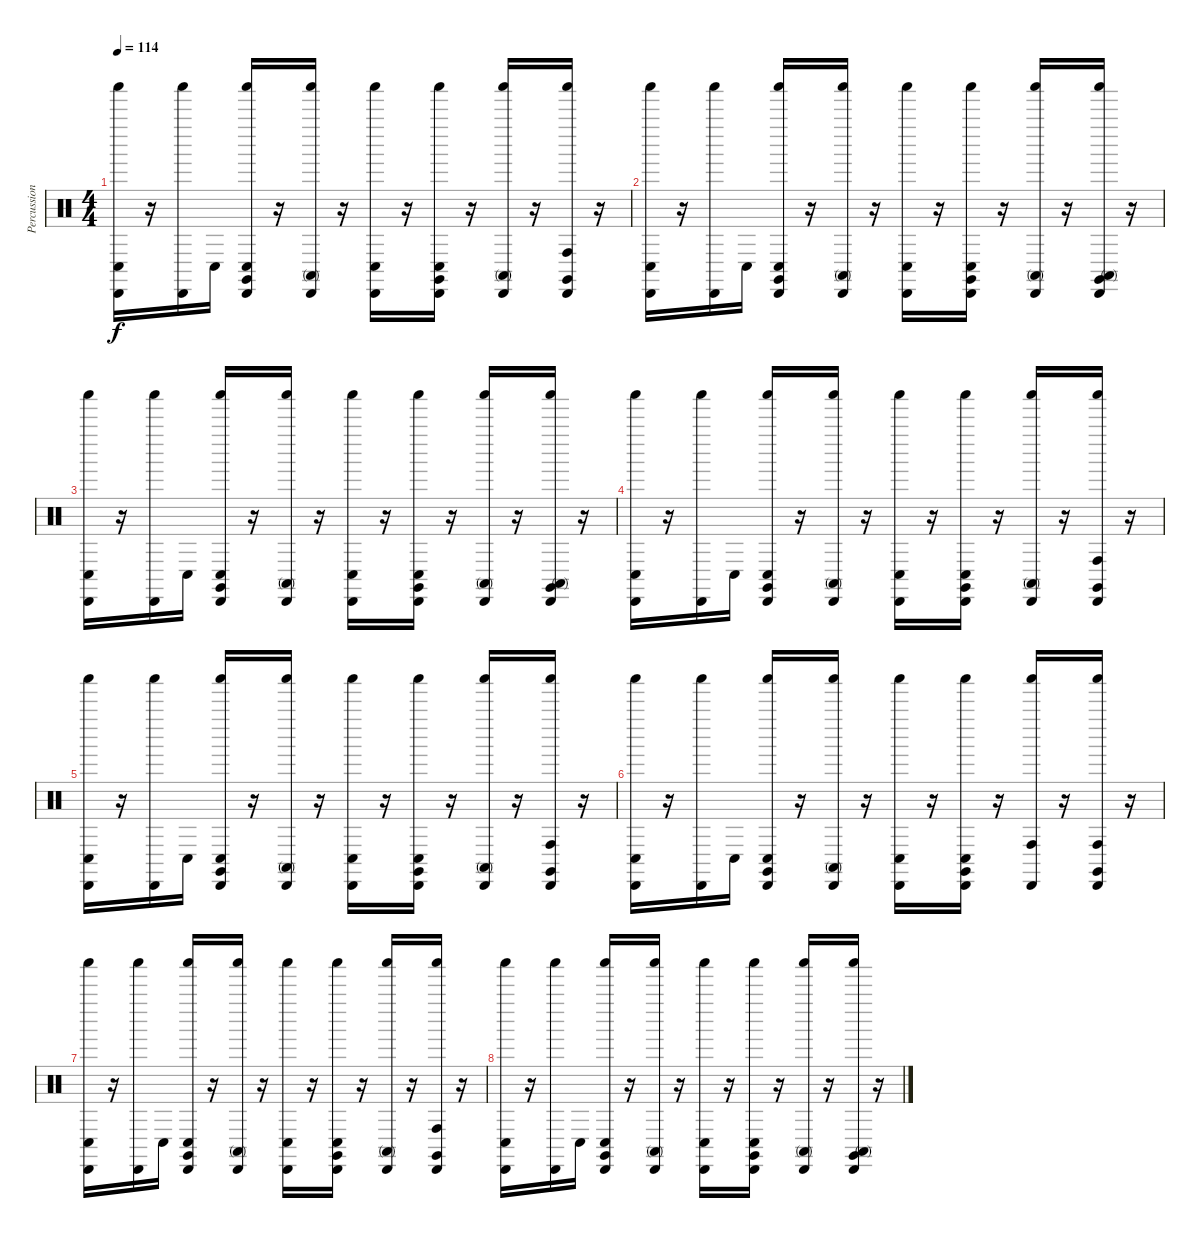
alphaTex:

\track ("Percussion (Std Set)" "Percussion") {instrument percussion}
\staff {score}
\articulation defaults
\ts (4 4)
\tempo 114
\clef neutral
\ks c
("Cabasa (hit)" "Conga low (hit)" "Shaker (hit)").16{dy f} r.16 ("Shaker (hit)" "Cabasa (hit)").16 "Conga low (hit)".16 ("Claves (hit)" "Shaker (hit)" "Cabasa (hit)" "Conga low (hit)").16 r.16 ("Conga high (mute)" "Shaker (hit)" "Cabasa (hit)").16 r.16 ("Shaker (hit)" "Conga low (hit)" "Cabasa (hit)").16 r.16 ("Shaker (hit)" "Cabasa (hit)" "Claves (hit)" "Conga low (hit)").16 r.16 ("Conga high (mute)" "Cabasa (hit)" "Shaker (hit)").16 r.16 ("Conga high (hit)" "Claves (hit)" "Cabasa (hit)" "Shaker (hit)").16 r.16 |
("Shaker (hit)" "Cabasa (hit)" "Conga low (hit)").16 r.16 ("Shaker (hit)" "Cabasa (hit)").16 "Conga low (hit)".16 ("Cabasa (hit)" "Conga low (hit)" "Shaker (hit)" "Claves (hit)").16 r.16 ("Shaker (hit)" "Conga high (mute)" "Cabasa (hit)").16 r.16 ("Shaker (hit)" "Conga low (hit)" "Cabasa (hit)").16 r.16 ("Conga low (hit)" "Claves (hit)" "Cabasa (hit)" "Shaker (hit)").16 r.16 ("Shaker (hit)" "Conga high (mute)" "Cabasa (hit)").16 r.16 ("Claves (hit)" "Shaker (hit)" "Conga high (mute)" "Cabasa (hit)").16 r.16 |
("Conga low (hit)" "Cabasa (hit)" "Shaker (hit)").16 r.16 ("Shaker (hit)" "Cabasa (hit)").16 "Conga low (hit)".16 ("Conga low (hit)" "Shaker (hit)" "Cabasa (hit)" "Claves (hit)").16 r.16 ("Shaker (hit)" "Cabasa (hit)" "Conga high (mute)").16 r.16 ("Conga low (hit)" "Cabasa (hit)" "Shaker (hit)").16 r.16 ("Claves (hit)" "Cabasa (hit)" "Shaker (hit)" "Conga low (hit)").16 r.16 ("Cabasa (hit)" "Conga high (mute)" "Shaker (hit)").16 r.16 ("Shaker (hit)" "Cabasa (hit)" "Claves (hit)" "Conga high (mute)").16 r.16 |
("Cabasa (hit)" "Shaker (hit)" "Conga low (hit)").16 r.16 ("Shaker (hit)" "Cabasa (hit)").16 "Conga low (hit)".16 ("Shaker (hit)" "Conga low (hit)" "Cabasa (hit)" "Claves (hit)").16 r.16 ("Shaker (hit)" "Conga high (mute)" "Cabasa (hit)").16 r.16 ("Conga low (hit)" "Cabasa (hit)" "Shaker (hit)").16 r.16 ("Shaker (hit)" "Claves (hit)" "Cabasa (hit)" "Conga low (hit)").16 r.16 ("Cabasa (hit)" "Shaker (hit)" "Conga high (mute)").16 r.16 ("Conga high (hit)" "Claves (hit)" "Shaker (hit)" "Cabasa (hit)").16 r.16 |
("Cabasa (hit)" "Conga low (hit)" "Shaker (hit)").16 r.16 ("Shaker (hit)" "Cabasa (hit)").16 "Conga low (hit)".16 ("Shaker (hit)" "Cabasa (hit)" "Claves (hit)" "Conga low (hit)").16 r.16 ("Cabasa (hit)" "Conga high (mute)" "Shaker (hit)").16 r.16 ("Conga low (hit)" "Shaker (hit)" "Cabasa (hit)").16 r.16 ("Conga low (hit)" "Cabasa (hit)" "Shaker (hit)" "Claves (hit)").16 r.16 ("Shaker (hit)" "Conga high (mute)" "Cabasa (hit)").16 r.16 ("Shaker (hit)" "Cabasa (hit)" "Conga high (hit)" "Claves (hit)").16 r.16 |
("Cabasa (hit)" "Shaker (hit)" "Conga low (hit)").16 r.16 ("Shaker (hit)" "Cabasa (hit)").16 "Conga low (hit)".16 ("Claves (hit)" "Cabasa (hit)" "Conga low (hit)" "Shaker (hit)").16 r.16 ("Cabasa (hit)" "Shaker (hit)" "Conga high (mute)").16 r.16 ("Shaker (hit)" "Conga low (hit)" "Cabasa (hit)").16 r.16 ("Shaker (hit)" "Conga low (hit)" "Cabasa (hit)" "Claves (hit)").16 r.16 ("Cabasa (hit)" "Shaker (hit)" "Conga high (hit)").16 r.16 ("Shaker (hit)" "Cabasa (hit)" "Claves (hit)" "Conga high (hit)").16 r.16 |
("Cabasa (hit)" "Conga low (hit)" "Shaker (hit)").16 r.16 ("Shaker (hit)" "Cabasa (hit)").16 "Conga low (hit)".16 ("Conga low (hit)" "Shaker (hit)" "Claves (hit)" "Cabasa (hit)").16 r.16 ("Conga high (mute)" "Shaker (hit)" "Cabasa (hit)").16 r.16 ("Shaker (hit)" "Conga low (hit)" "Cabasa (hit)").16 r.16 ("Shaker (hit)" "Conga low (hit)" "Cabasa (hit)" "Claves (hit)").16 r.16 ("Cabasa (hit)" "Conga high (mute)" "Shaker (hit)").16 r.16 ("Claves (hit)" "Conga high (hit)" "Cabasa (hit)" "Shaker (hit)").16 r.16 |
("Shaker (hit)" "Cabasa (hit)" "Conga low (hit)").16 r.16 ("Shaker (hit)" "Cabasa (hit)").16 "Conga low (hit)".16 ("Claves (hit)" "Conga low (hit)" "Cabasa (hit)" "Shaker (hit)").16 r.16 ("Shaker (hit)" "Conga high (mute)" "Cabasa (hit)").16 r.16 ("Shaker (hit)" "Cabasa (hit)" "Conga low (hit)").16 r.16 ("Claves (hit)" "Conga low (hit)" "Cabasa (hit)" "Shaker (hit)").16 r.16 ("Cabasa (hit)" "Shaker (hit)" "Conga high (mute)").16 r.16 ("Cabasa (hit)" "Conga high (mute)" "Shaker (hit)" "Claves (hit)").16 r.16
